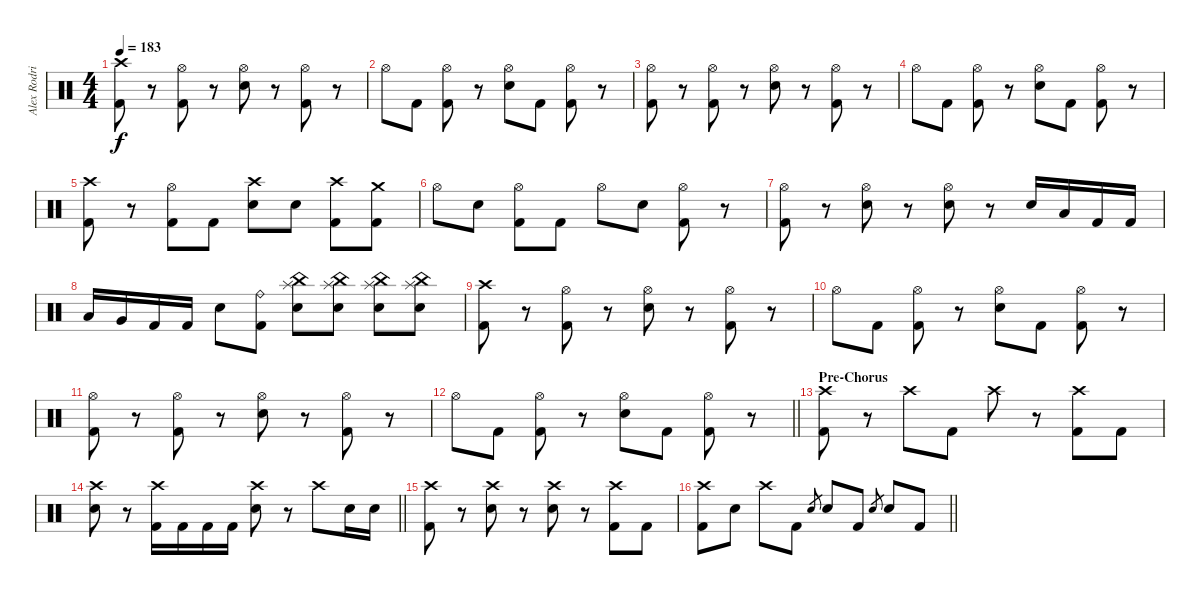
\track ("Alex Rodriguez [Not Finished Yet]" "Alex Rodri") {mute instrument percussion}
\staff {score}
\articulation defaults
\ts (4 4)
\tempo 183
\clef neutral
\ks c
("Crash high (hit)" "Kick (hit) 2").8{dy f} r.8 ("Hi-Hat (open)" "Kick (hit) 2").8 r.8 ("Hi-Hat (open)" "Electric Snare (hit)").8 r.8 ("Hi-Hat (open)" "Kick (hit) 2").8 r.8 |
"Hi-Hat (open)".8 "Kick (hit) 2".8 ("Hi-Hat (open)" "Kick (hit) 2").8 r.8 ("Hi-Hat (open)" "Electric Snare (hit)").8 "Kick (hit) 2".8 ("Hi-Hat (open)" "Kick (hit) 2").8 r.8 |
("Hi-Hat (open)" "Kick (hit) 2").8 r.8 ("Hi-Hat (open)" "Kick (hit) 2").8 r.8 ("Hi-Hat (open)" "Electric Snare (hit)").8 r.8 ("Hi-Hat (open)" "Kick (hit) 2").8 r.8 |
"Hi-Hat (open)".8 "Kick (hit) 2".8 ("Hi-Hat (open)" "Kick (hit) 2").8 r.8 ("Hi-Hat (open)" "Electric Snare (hit)").8 "Kick (hit) 2".8 ("Hi-Hat (open)" "Kick (hit) 2").8 r.8 |
("Crash high (hit)" "Kick (hit) 2").8 r.8 ("Hi-Hat (open)" "Kick (hit) 2").8 "Kick (hit) 2".8 ("Crash high (hit)" "Electric Snare (hit)").8 "Electric Snare (hit)".8 ("Crash high (hit)" "Kick (hit) 2").8 ("Crash medium (hit)" "Kick (hit) 2").8 |
"Hi-Hat (open)".8 "Electric Snare (hit)".8 ("Hi-Hat (open)" "Kick (hit) 2").8 "Kick (hit) 2".8 "Hi-Hat (open)".8 "Electric Snare (hit)".8 ("Hi-Hat (open)" "Kick (hit) 2").8 r.8 |
("Hi-Hat (open)" "Kick (hit) 2").8 r.8 ("Hi-Hat (open)" "Electric Snare (hit)").8 r.8 ("Hi-Hat (open)" "Electric Snare (hit)").8 r.8 "Electric Snare (hit)".16 "Low Tom (hit)".16 "Kick (hit) 2".16 "Kick (hit) 2".16 |
"Low Tom (hit)".16 "Very Low Tom (hit)".16 "Kick (hit) 2".16 "Kick (hit) 2".16 "Electric Snare (hit)".8 ("Ride (bell)" "Kick (hit) 2").8 ("Splash (hit)" "China (hit)" "Electric Snare (hit)").8 ("Splash (hit)" "China (hit)" "Electric Snare (hit)").8 ("Splash (hit)" "China (hit)" "Electric Snare (hit)").8 ("Splash (hit)" "China (hit)" "Electric Snare (hit)").8 |
("Crash high (hit)" "Kick (hit) 2").8 r.8 ("Hi-Hat (open)" "Kick (hit) 2").8 r.8 ("Hi-Hat (open)" "Electric Snare (hit)").8 r.8 ("Hi-Hat (open)" "Kick (hit) 2").8 r.8 |
"Hi-Hat (open)".8 "Kick (hit) 2".8 ("Hi-Hat (open)" "Kick (hit) 2").8 r.8 ("Hi-Hat (open)" "Electric Snare (hit)").8 "Kick (hit) 2".8 ("Hi-Hat (open)" "Kick (hit) 2").8 r.8 |
("Hi-Hat (open)" "Kick (hit) 2").8 r.8 ("Hi-Hat (open)" "Kick (hit) 2").8 r.8 ("Hi-Hat (open)" "Electric Snare (hit)").8 r.8 ("Hi-Hat (open)" "Kick (hit) 2").8 r.8 |
\barLineRight lightlight "Hi-Hat (open)".8 "Kick (hit) 2".8
("Hi-Hat (open)" "Kick (hit) 2").8 r.8 ("Hi-Hat (open)" "Electric Snare (hit)").8 "Kick (hit) 2".8 ("Hi-Hat (open)" "Kick (hit) 2").8 r.8 |
\section ("" "Pre-Chorus")
("Crash high (hit)" "Kick (hit) 2").8 r.8 "Crash high (hit)".8 "Kick (hit) 2".8 "Crash high (hit)".8 r.8 ("Crash high (hit)" "Kick (hit) 2").8 "Kick (hit) 2".8 |
\barLineRight lightlight
("Crash high (hit)" "Electric Snare (hit)").8 r.8 ("Crash high (hit)" "Kick (hit) 2").16 "Kick (hit) 2".16 "Kick (hit) 2".16 "Kick (hit) 2".16 ("Crash high (hit)" "Electric Snare (hit)").8 r.8 "Crash high (hit)".8 "Electric Snare (hit)".16 "Electric Snare (hit)".16 |
("Crash high (hit)" "Kick (hit) 2").8 r.8 ("Crash high (hit)" "Electric Snare (hit)").8 r.8 ("Crash high (hit)" "Electric Snare (hit)").8 r.8 ("Crash high (hit)" "Kick (hit) 2").8 "Kick (hit) 2".8 |
\barLineRight lightlight
("Crash high (hit)" "Kick (hit) 2").8 "Electric Snare (hit)".8 "Crash high (hit)".8 "Kick (hit) 2".8 "Electric Snare (hit)".8{gr} "Electric Snare (hit)".8 "Kick (hit) 2".8 "Electric Snare (hit)".8{gr} "Electric Snare (hit)".8 "Kick (hit) 2".8
